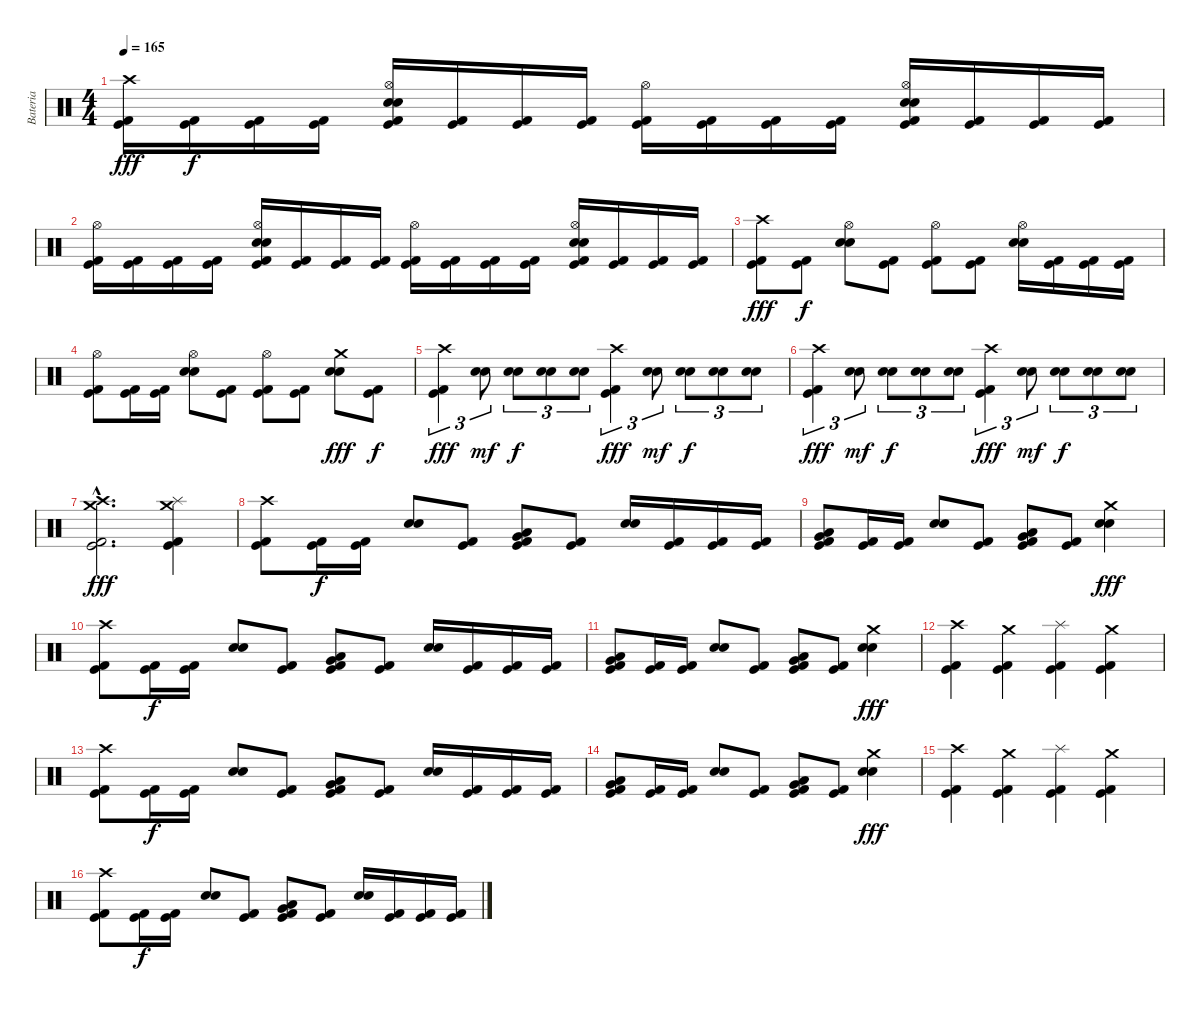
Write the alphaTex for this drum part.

\track ("Bateria" "Bateria") {instrument percussion}
\staff {score}
\articulation defaults
\ts (4 4)
\tempo 165
\clef neutral
\ks c
("Crash high (hit)" "Kick (hit) 2" "Kick (hit)").16{dy fff} ("Kick (hit) 2" "Kick (hit)").16{dy f} ("Kick (hit) 2" "Kick (hit)").16 ("Kick (hit) 2" "Kick (hit)").16 ("Hi-Hat (open)" "Electric Snare (hit)" "Snare (hit) 2" "Kick (hit) 2" "Kick (hit)").16 ("Kick (hit) 2" "Kick (hit)").16 ("Kick (hit) 2" "Kick (hit)").16 ("Kick (hit) 2" "Kick (hit)").16 ("Hi-Hat (open)" "Kick (hit) 2" "Kick (hit)").16 ("Kick (hit) 2" "Kick (hit)").16 ("Kick (hit) 2" "Kick (hit)").16 ("Kick (hit) 2" "Kick (hit)").16 ("Hi-Hat (open)" "Electric Snare (hit)" "Snare (hit) 2" "Kick (hit) 2" "Kick (hit)").16 ("Kick (hit) 2" "Kick (hit)").16 ("Kick (hit) 2" "Kick (hit)").16 ("Kick (hit) 2" "Kick (hit)").16 |
("Hi-Hat (open)" "Kick (hit) 2" "Kick (hit)").16 ("Kick (hit) 2" "Kick (hit)").16 ("Kick (hit) 2" "Kick (hit)").16 ("Kick (hit) 2" "Kick (hit)").16 ("Hi-Hat (open)" "Electric Snare (hit)" "Snare (hit) 2" "Kick (hit) 2" "Kick (hit)").16 ("Kick (hit) 2" "Kick (hit)").16 ("Kick (hit) 2" "Kick (hit)").16 ("Kick (hit) 2" "Kick (hit)").16 ("Hi-Hat (open)" "Kick (hit) 2" "Kick (hit)").16 ("Kick (hit) 2" "Kick (hit)").16 ("Kick (hit) 2" "Kick (hit)").16 ("Kick (hit) 2" "Kick (hit)").16 ("Hi-Hat (open)" "Electric Snare (hit)" "Snare (hit) 2" "Kick (hit) 2" "Kick (hit)").16 ("Kick (hit) 2" "Kick (hit)").16 ("Kick (hit) 2" "Kick (hit)").16 ("Kick (hit) 2" "Kick (hit)").16 |
("Crash high (hit)" "Kick (hit) 2" "Kick (hit)").8{dy fff} ("Kick (hit) 2" "Kick (hit)").8{dy f} ("Hi-Hat (open)" "Electric Snare (hit)" "Snare (hit) 2").8 ("Kick (hit) 2" "Kick (hit)").8 ("Hi-Hat (open)" "Kick (hit) 2" "Kick (hit)").8 ("Kick (hit) 2" "Kick (hit)").8 ("Hi-Hat (open)" "Electric Snare (hit)" "Snare (hit) 2").16 ("Kick (hit) 2" "Kick (hit)").16 ("Kick (hit) 2" "Kick (hit)").16 ("Kick (hit) 2" "Kick (hit)").16 |
("Hi-Hat (open)" "Kick (hit) 2" "Kick (hit)").8 ("Kick (hit) 2" "Kick (hit)").16 ("Kick (hit) 2" "Kick (hit)").16 ("Hi-Hat (open)" "Electric Snare (hit)" "Snare (hit) 2").8 ("Kick (hit) 2" "Kick (hit)").8 ("Hi-Hat (open)" "Kick (hit) 2" "Kick (hit)").8 ("Kick (hit) 2" "Kick (hit)").8 ("Crash medium (hit)" "Electric Snare (hit)" "Snare (hit) 2").8{dy fff} ("Kick (hit) 2" "Kick (hit)").8{dy f} |
("Crash high (hit)" "Kick (hit) 2" "Kick (hit)").4{tu (3 2) dy fff} ("Electric Snare (hit)" "Snare (hit) 2").8{tu (3 2) dy mf} ("Electric Snare (hit)" "Snare (hit) 2").8{tu (3 2) dy f} ("Electric Snare (hit)" "Snare (hit) 2").8{tu (3 2)} ("Electric Snare (hit)" "Snare (hit) 2").8{tu (3 2)} ("Crash high (hit)" "Kick (hit) 2" "Kick (hit)").4{tu (3 2) dy fff} ("Electric Snare (hit)" "Snare (hit) 2").8{tu (3 2) dy mf} ("Electric Snare (hit)" "Snare (hit) 2").8{tu (3 2) dy f} ("Electric Snare (hit)" "Snare (hit) 2").8{tu (3 2)} ("Electric Snare (hit)" "Snare (hit) 2").8{tu (3 2)} |
("Crash high (hit)" "Kick (hit) 2" "Kick (hit)").4{tu (3 2) dy fff} ("Electric Snare (hit)" "Snare (hit) 2").8{tu (3 2) dy mf} ("Electric Snare (hit)" "Snare (hit) 2").8{tu (3 2) dy f} ("Electric Snare (hit)" "Snare (hit) 2").8{tu (3 2)} ("Electric Snare (hit)" "Snare (hit) 2").8{tu (3 2)} ("Crash high (hit)" "Kick (hit) 2" "Kick (hit)").4{tu (3 2) dy fff} ("Electric Snare (hit)" "Snare (hit) 2").8{tu (3 2) dy mf} ("Electric Snare (hit)" "Snare (hit) 2").8{tu (3 2) dy f} ("Electric Snare (hit)" "Snare (hit) 2").8{tu (3 2)} ("Electric Snare (hit)" "Snare (hit) 2").8{tu (3 2)} |
("Crash high (hit)"{hac} "Crash medium (hit)"{hac} "Kick (hit) 2"{hac} "Kick (hit)"{hac}).2{d dy fff} ("Crash medium (hit)" "Splash (hit)" "Kick (hit) 2" "Kick (hit)").4 |
("Crash high (hit)" "Kick (hit) 2" "Kick (hit)").8 ("Kick (hit) 2" "Kick (hit)").16{dy f} ("Kick (hit) 2" "Kick (hit)").16 ("Electric Snare (hit)" "Snare (hit) 2").8 ("Kick (hit) 2" "Kick (hit)").8 ("Low Tom (hit)" "Very Low Tom (hit)" "Kick (hit) 2" "Kick (hit)").8 ("Kick (hit) 2" "Kick (hit)").8 ("Electric Snare (hit)" "Snare (hit) 2").16 ("Kick (hit) 2" "Kick (hit)").16 ("Kick (hit) 2" "Kick (hit)").16 ("Kick (hit) 2" "Kick (hit)").16 |
("Low Tom (hit)" "Very Low Tom (hit)" "Kick (hit) 2" "Kick (hit)").8 ("Kick (hit) 2" "Kick (hit)").16 ("Kick (hit) 2" "Kick (hit)").16 ("Electric Snare (hit)" "Snare (hit) 2").8 ("Kick (hit) 2" "Kick (hit)").8 ("Low Tom (hit)" "Very Low Tom (hit)" "Kick (hit) 2" "Kick (hit)").8 ("Kick (hit) 2" "Kick (hit)").8 ("Crash medium (hit)" "Electric Snare (hit)" "Snare (hit) 2").4{dy fff} |
("Crash high (hit)" "Kick (hit) 2" "Kick (hit)").8 ("Kick (hit) 2" "Kick (hit)").16{dy f} ("Kick (hit) 2" "Kick (hit)").16 ("Electric Snare (hit)" "Snare (hit) 2").8 ("Kick (hit) 2" "Kick (hit)").8 ("Low Tom (hit)" "Very Low Tom (hit)" "Kick (hit) 2" "Kick (hit)").8 ("Kick (hit) 2" "Kick (hit)").8 ("Electric Snare (hit)" "Snare (hit) 2").16 ("Kick (hit) 2" "Kick (hit)").16 ("Kick (hit) 2" "Kick (hit)").16 ("Kick (hit) 2" "Kick (hit)").16 |
("Low Tom (hit)" "Very Low Tom (hit)" "Kick (hit) 2" "Kick (hit)").8 ("Kick (hit) 2" "Kick (hit)").16 ("Kick (hit) 2" "Kick (hit)").16 ("Electric Snare (hit)" "Snare (hit) 2").8 ("Kick (hit) 2" "Kick (hit)").8 ("Low Tom (hit)" "Very Low Tom (hit)" "Kick (hit) 2" "Kick (hit)").8 ("Kick (hit) 2" "Kick (hit)").8 ("Crash medium (hit)" "Electric Snare (hit)" "Snare (hit) 2").4{dy fff} |
("Crash high (hit)" "Kick (hit) 2" "Kick (hit)").4 ("Crash medium (hit)" "Kick (hit) 2" "Kick (hit)").4 ("Splash (hit)" "Kick (hit) 2" "Kick (hit)").4 ("Crash medium (hit)" "Kick (hit) 2" "Kick (hit)").4 |
("Crash high (hit)" "Kick (hit) 2" "Kick (hit)").8 ("Kick (hit) 2" "Kick (hit)").16{dy f} ("Kick (hit) 2" "Kick (hit)").16 ("Electric Snare (hit)" "Snare (hit) 2").8 ("Kick (hit) 2" "Kick (hit)").8 ("Low Tom (hit)" "Very Low Tom (hit)" "Kick (hit) 2" "Kick (hit)").8 ("Kick (hit) 2" "Kick (hit)").8 ("Electric Snare (hit)" "Snare (hit) 2").16 ("Kick (hit) 2" "Kick (hit)").16 ("Kick (hit) 2" "Kick (hit)").16 ("Kick (hit) 2" "Kick (hit)").16 |
("Low Tom (hit)" "Very Low Tom (hit)" "Kick (hit) 2" "Kick (hit)").8 ("Kick (hit) 2" "Kick (hit)").16 ("Kick (hit) 2" "Kick (hit)").16 ("Electric Snare (hit)" "Snare (hit) 2").8 ("Kick (hit) 2" "Kick (hit)").8 ("Low Tom (hit)" "Very Low Tom (hit)" "Kick (hit) 2" "Kick (hit)").8 ("Kick (hit) 2" "Kick (hit)").8 ("Crash medium (hit)" "Electric Snare (hit)" "Snare (hit) 2").4{dy fff} |
("Crash high (hit)" "Kick (hit) 2" "Kick (hit)").4 ("Crash medium (hit)" "Kick (hit) 2" "Kick (hit)").4 ("Splash (hit)" "Kick (hit) 2" "Kick (hit)").4 ("Crash medium (hit)" "Kick (hit) 2" "Kick (hit)").4 |
("Crash high (hit)" "Kick (hit) 2" "Kick (hit)").8 ("Kick (hit) 2" "Kick (hit)").16{dy f} ("Kick (hit) 2" "Kick (hit)").16 ("Electric Snare (hit)" "Snare (hit) 2").8 ("Kick (hit) 2" "Kick (hit)").8 ("Low Tom (hit)" "Very Low Tom (hit)" "Kick (hit) 2" "Kick (hit)").8 ("Kick (hit) 2" "Kick (hit)").8 ("Electric Snare (hit)" "Snare (hit) 2").16 ("Kick (hit) 2" "Kick (hit)").16 ("Kick (hit) 2" "Kick (hit)").16 ("Kick (hit) 2" "Kick (hit)").16
